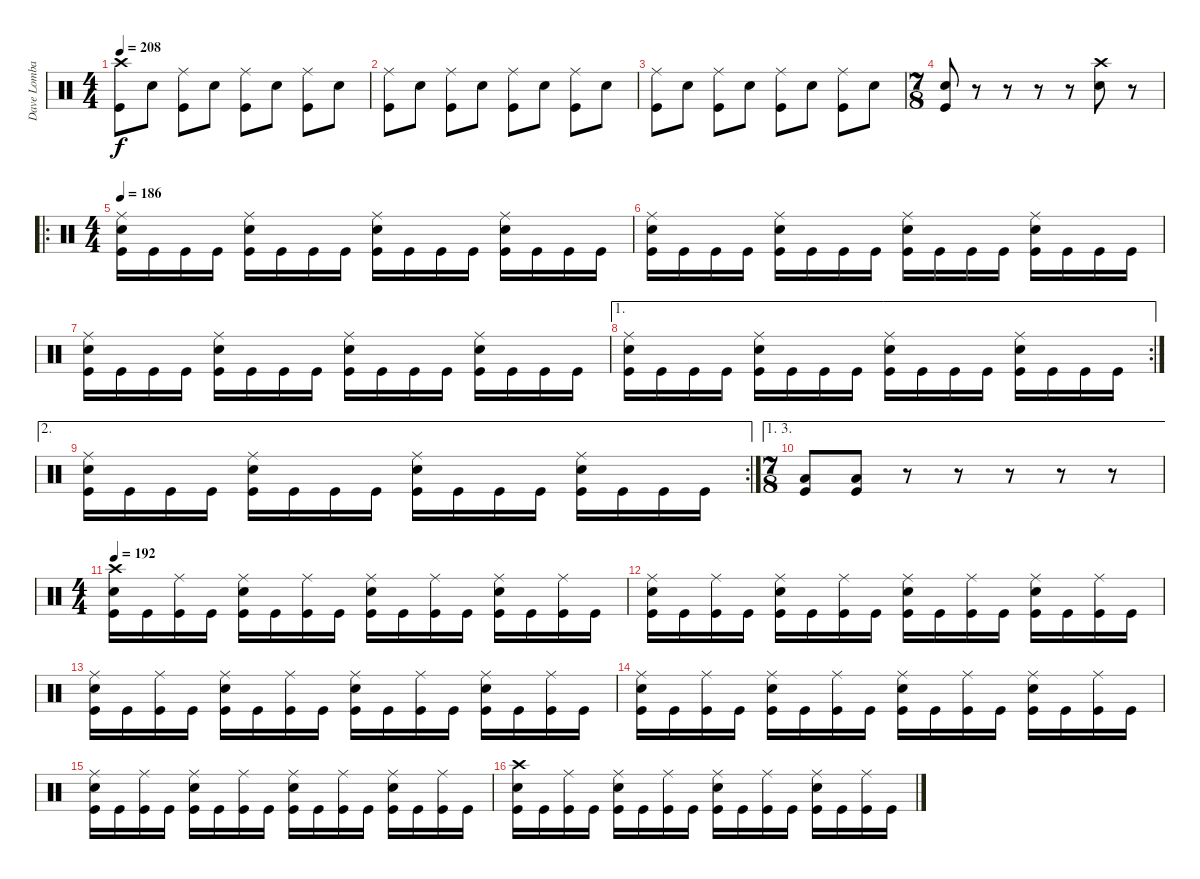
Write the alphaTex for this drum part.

\track ("Dave Lombardo" "Dave Lomba") {instrument percussion}
\staff {score}
\articulation defaults
\ts (4 4)
\tempo 208
\clef neutral
\ks c
("Crash high (hit)" "Kick (hit)").8{dy f} "Electric Snare (hit)".8 ("Ride (middle)" "Kick (hit)").8 "Electric Snare (hit)".8 ("Ride (middle)" "Kick (hit)").8 "Electric Snare (hit)".8 ("Ride (middle)" "Kick (hit)").8 "Electric Snare (hit)".8 |
("Ride (middle)" "Kick (hit)").8 "Electric Snare (hit)".8 ("Ride (middle)" "Kick (hit)").8 "Electric Snare (hit)".8 ("Ride (middle)" "Kick (hit)").8 "Electric Snare (hit)".8 ("Ride (middle)" "Kick (hit)").8 "Electric Snare (hit)".8 |
("Ride (middle)" "Kick (hit)").8 "Electric Snare (hit)".8 ("Ride (middle)" "Kick (hit)").8 "Electric Snare (hit)".8 ("Ride (middle)" "Kick (hit)").8 "Electric Snare (hit)".8 ("Ride (middle)" "Kick (hit)").8 "Electric Snare (hit)".8 |
\ts (7 8)
("Electric Snare (hit)" "Kick (hit)").8 r.8 r.8 r.8 r.8 ("Crash high (hit)" "Electric Snare (hit)").8 r.8 |
\ro
\ts (4 4)
\tempo 186
("Ride (middle)" "Electric Snare (hit)" "Kick (hit)").16 "Kick (hit)".16 "Kick (hit)".16 "Kick (hit)".16 ("Ride (middle)" "Electric Snare (hit)" "Kick (hit)").16 "Kick (hit)".16 "Kick (hit)".16 "Kick (hit)".16 ("Ride (middle)" "Electric Snare (hit)" "Kick (hit)").16 "Kick (hit)".16 "Kick (hit)".16 "Kick (hit)".16 ("Ride (middle)" "Electric Snare (hit)" "Kick (hit)").16 "Kick (hit)".16 "Kick (hit)".16 "Kick (hit)".16 |
("Ride (middle)" "Electric Snare (hit)" "Kick (hit)").16 "Kick (hit)".16 "Kick (hit)".16 "Kick (hit)".16 ("Ride (middle)" "Electric Snare (hit)" "Kick (hit)").16 "Kick (hit)".16 "Kick (hit)".16 "Kick (hit)".16 ("Ride (middle)" "Electric Snare (hit)" "Kick (hit)").16 "Kick (hit)".16 "Kick (hit)".16 "Kick (hit)".16 ("Ride (middle)" "Electric Snare (hit)" "Kick (hit)").16 "Kick (hit)".16 "Kick (hit)".16 "Kick (hit)".16 |
("Ride (middle)" "Electric Snare (hit)" "Kick (hit)").16 "Kick (hit)".16 "Kick (hit)".16 "Kick (hit)".16 ("Ride (middle)" "Electric Snare (hit)" "Kick (hit)").16 "Kick (hit)".16 "Kick (hit)".16 "Kick (hit)".16 ("Ride (middle)" "Electric Snare (hit)" "Kick (hit)").16 "Kick (hit)".16 "Kick (hit)".16 "Kick (hit)".16 ("Ride (middle)" "Electric Snare (hit)" "Kick (hit)").16 "Kick (hit)".16 "Kick (hit)".16 "Kick (hit)".16 |
\ae 1
\rc 2
("Ride (middle)" "Electric Snare (hit)" "Kick (hit)").16 "Kick (hit)".16 "Kick (hit)".16 "Kick (hit)".16 ("Ride (middle)" "Electric Snare (hit)" "Kick (hit)").16 "Kick (hit)".16 "Kick (hit)".16 "Kick (hit)".16 ("Ride (middle)" "Electric Snare (hit)" "Kick (hit)").16 "Kick (hit)".16 "Kick (hit)".16 "Kick (hit)".16 ("Ride (middle)" "Electric Snare (hit)" "Kick (hit)").16 "Kick (hit)".16 "Kick (hit)".16 "Kick (hit)".16 |
\ae 2
\rc 2
("Ride (middle)" "Electric Snare (hit)" "Kick (hit)").16 "Kick (hit)".16 "Kick (hit)".16 "Kick (hit)".16 ("Ride (middle)" "Electric Snare (hit)" "Kick (hit)").16 "Kick (hit)".16 "Kick (hit)".16 "Kick (hit)".16 ("Ride (middle)" "Electric Snare (hit)" "Kick (hit)").16 "Kick (hit)".16 "Kick (hit)".16 "Kick (hit)".16 ("Ride (middle)" "Electric Snare (hit)" "Kick (hit)").16 "Kick (hit)".16 "Kick (hit)".16 "Kick (hit)".16 |
\ae (1 3)
\ts (7 8)
("Low Tom (hit)" "Kick (hit)").8 ("Low Tom (hit)" "Kick (hit)").8 r.8 r.8 r.8 r.8 r.8 |
\ts (4 4)
\tempo 192
("Crash high (hit)" "Electric Snare (hit)" "Kick (hit)").16 "Kick (hit)".16 ("Ride (middle)" "Kick (hit)").16 "Kick (hit)".16 ("Ride (middle)" "Electric Snare (hit)" "Kick (hit)").16 "Kick (hit)".16 ("Ride (middle)" "Kick (hit)").16 "Kick (hit)".16 ("Ride (middle)" "Electric Snare (hit)" "Kick (hit)").16 "Kick (hit)".16 ("Ride (middle)" "Kick (hit)").16 "Kick (hit)".16 ("Ride (middle)" "Electric Snare (hit)" "Kick (hit)").16 "Kick (hit)".16 ("Ride (middle)" "Kick (hit)").16 "Kick (hit)".16 |
("Ride (middle)" "Electric Snare (hit)" "Kick (hit)").16 "Kick (hit)".16 ("Ride (middle)" "Kick (hit)").16 "Kick (hit)".16 ("Ride (middle)" "Electric Snare (hit)" "Kick (hit)").16 "Kick (hit)".16 ("Ride (middle)" "Kick (hit)").16 "Kick (hit)".16 ("Ride (middle)" "Electric Snare (hit)" "Kick (hit)").16 "Kick (hit)".16 ("Ride (middle)" "Kick (hit)").16 "Kick (hit)".16 ("Ride (middle)" "Electric Snare (hit)" "Kick (hit)").16 "Kick (hit)".16 ("Ride (middle)" "Kick (hit)").16 "Kick (hit)".16 |
("Ride (middle)" "Electric Snare (hit)" "Kick (hit)").16 "Kick (hit)".16 ("Ride (middle)" "Kick (hit)").16 "Kick (hit)".16 ("Ride (middle)" "Electric Snare (hit)" "Kick (hit)").16 "Kick (hit)".16 ("Ride (middle)" "Kick (hit)").16 "Kick (hit)".16 ("Ride (middle)" "Electric Snare (hit)" "Kick (hit)").16 "Kick (hit)".16 ("Ride (middle)" "Kick (hit)").16 "Kick (hit)".16 ("Ride (middle)" "Electric Snare (hit)" "Kick (hit)").16 "Kick (hit)".16 ("Ride (middle)" "Kick (hit)").16 "Kick (hit)".16 |
("Ride (middle)" "Electric Snare (hit)" "Kick (hit)").16 "Kick (hit)".16 ("Ride (middle)" "Kick (hit)").16 "Kick (hit)".16 ("Ride (middle)" "Electric Snare (hit)" "Kick (hit)").16 "Kick (hit)".16 ("Ride (middle)" "Kick (hit)").16 "Kick (hit)".16 ("Ride (middle)" "Electric Snare (hit)" "Kick (hit)").16 "Kick (hit)".16 ("Ride (middle)" "Kick (hit)").16 "Kick (hit)".16 ("Ride (middle)" "Electric Snare (hit)" "Kick (hit)").16 "Kick (hit)".16 ("Ride (middle)" "Kick (hit)").16 "Kick (hit)".16 |
("Ride (middle)" "Electric Snare (hit)" "Kick (hit)").16 "Kick (hit)".16 ("Ride (middle)" "Kick (hit)").16 "Kick (hit)".16 ("Ride (middle)" "Electric Snare (hit)" "Kick (hit)").16 "Kick (hit)".16 ("Ride (middle)" "Kick (hit)").16 "Kick (hit)".16 ("Ride (middle)" "Electric Snare (hit)" "Kick (hit)").16 "Kick (hit)".16 ("Ride (middle)" "Kick (hit)").16 "Kick (hit)".16 ("Ride (middle)" "Electric Snare (hit)" "Kick (hit)").16 "Kick (hit)".16 ("Ride (middle)" "Kick (hit)").16 "Kick (hit)".16 |
("Crash high (hit)" "Electric Snare (hit)" "Kick (hit)").16 "Kick (hit)".16 ("Ride (middle)" "Kick (hit)").16 "Kick (hit)".16 ("Ride (middle)" "Electric Snare (hit)" "Kick (hit)").16 "Kick (hit)".16 ("Ride (middle)" "Kick (hit)").16 "Kick (hit)".16 ("Ride (middle)" "Electric Snare (hit)" "Kick (hit)").16 "Kick (hit)".16 ("Ride (middle)" "Kick (hit)").16 "Kick (hit)".16 ("Ride (middle)" "Electric Snare (hit)" "Kick (hit)").16 "Kick (hit)".16 ("Ride (middle)" "Kick (hit)").16 "Kick (hit)".16
